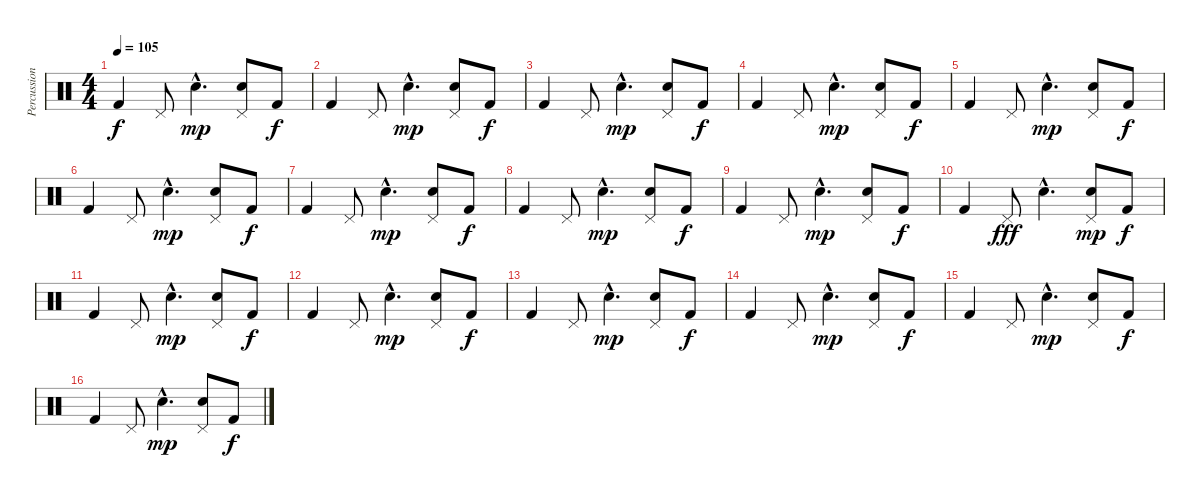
\track ("Percussion" "Percussion") {instrument percussion}
\staff {score}
\articulation defaults
\ts (4 4)
\tempo 105
\clef neutral
\ks c "Kick (hit) 2".4{dy f} "Pedal Hi-Hat (hit)".8 "Hand Clap (hit)"{hac}.4{d dy mp}
("Pedal Hi-Hat (hit)" "Hand Clap (hit)").8 "Kick (hit) 2".8{dy f} |
"Kick (hit) 2".4 "Pedal Hi-Hat (hit)".8 "Hand Clap (hit)"{hac}.4{d dy mp} ("Pedal Hi-Hat (hit)" "Hand Clap (hit)").8 "Kick (hit) 2".8{dy f} |
"Kick (hit) 2".4 "Pedal Hi-Hat (hit)".8 "Hand Clap (hit)"{hac}.4{d dy mp} ("Pedal Hi-Hat (hit)" "Hand Clap (hit)").8 "Kick (hit) 2".8{dy f} |
"Kick (hit) 2".4 "Pedal Hi-Hat (hit)".8 "Hand Clap (hit)"{hac}.4{d dy mp} ("Pedal Hi-Hat (hit)" "Hand Clap (hit)").8 "Kick (hit) 2".8{dy f} |
"Kick (hit) 2".4 "Pedal Hi-Hat (hit)".8 "Hand Clap (hit)"{hac}.4{d dy mp} ("Pedal Hi-Hat (hit)" "Hand Clap (hit)").8 "Kick (hit) 2".8{dy f} |
"Kick (hit) 2".4 "Pedal Hi-Hat (hit)".8 "Hand Clap (hit)"{hac}.4{d dy mp} ("Pedal Hi-Hat (hit)" "Hand Clap (hit)").8 "Kick (hit) 2".8{dy f} |
"Kick (hit) 2".4 "Pedal Hi-Hat (hit)".8 "Hand Clap (hit)"{hac}.4{d dy mp} ("Pedal Hi-Hat (hit)" "Hand Clap (hit)").8 "Kick (hit) 2".8{dy f} |
"Kick (hit) 2".4 "Pedal Hi-Hat (hit)".8 "Hand Clap (hit)"{hac}.4{d dy mp} ("Pedal Hi-Hat (hit)" "Hand Clap (hit)").8 "Kick (hit) 2".8{dy f} |
"Kick (hit) 2".4 "Pedal Hi-Hat (hit)".8 "Hand Clap (hit)"{hac}.4{d dy mp} ("Pedal Hi-Hat (hit)" "Hand Clap (hit)").8 "Kick (hit) 2".8{dy f} |
"Kick (hit) 2".4 "Pedal Hi-Hat (hit)".8{dy fff} "Hand Clap (hit)"{hac}.4{d} ("Pedal Hi-Hat (hit)" "Hand Clap (hit)").8{dy mp} "Kick (hit) 2".8{dy f} |
"Kick (hit) 2".4 "Pedal Hi-Hat (hit)".8 "Hand Clap (hit)"{hac}.4{d dy mp} ("Pedal Hi-Hat (hit)" "Hand Clap (hit)").8 "Kick (hit) 2".8{dy f} |
"Kick (hit) 2".4 "Pedal Hi-Hat (hit)".8 "Hand Clap (hit)"{hac}.4{d dy mp} ("Pedal Hi-Hat (hit)" "Hand Clap (hit)").8 "Kick (hit) 2".8{dy f} |
"Kick (hit) 2".4 "Pedal Hi-Hat (hit)".8 "Hand Clap (hit)"{hac}.4{d dy mp} ("Pedal Hi-Hat (hit)" "Hand Clap (hit)").8 "Kick (hit) 2".8{dy f} |
"Kick (hit) 2".4 "Pedal Hi-Hat (hit)".8 "Hand Clap (hit)"{hac}.4{d dy mp} ("Pedal Hi-Hat (hit)" "Hand Clap (hit)").8 "Kick (hit) 2".8{dy f} |
"Kick (hit) 2".4 "Pedal Hi-Hat (hit)".8 "Hand Clap (hit)"{hac}.4{d dy mp} ("Pedal Hi-Hat (hit)" "Hand Clap (hit)").8 "Kick (hit) 2".8{dy f} |
"Kick (hit) 2".4 "Pedal Hi-Hat (hit)".8 "Hand Clap (hit)"{hac}.4{d dy mp} ("Pedal Hi-Hat (hit)" "Hand Clap (hit)").8 "Kick (hit) 2".8{dy f}
